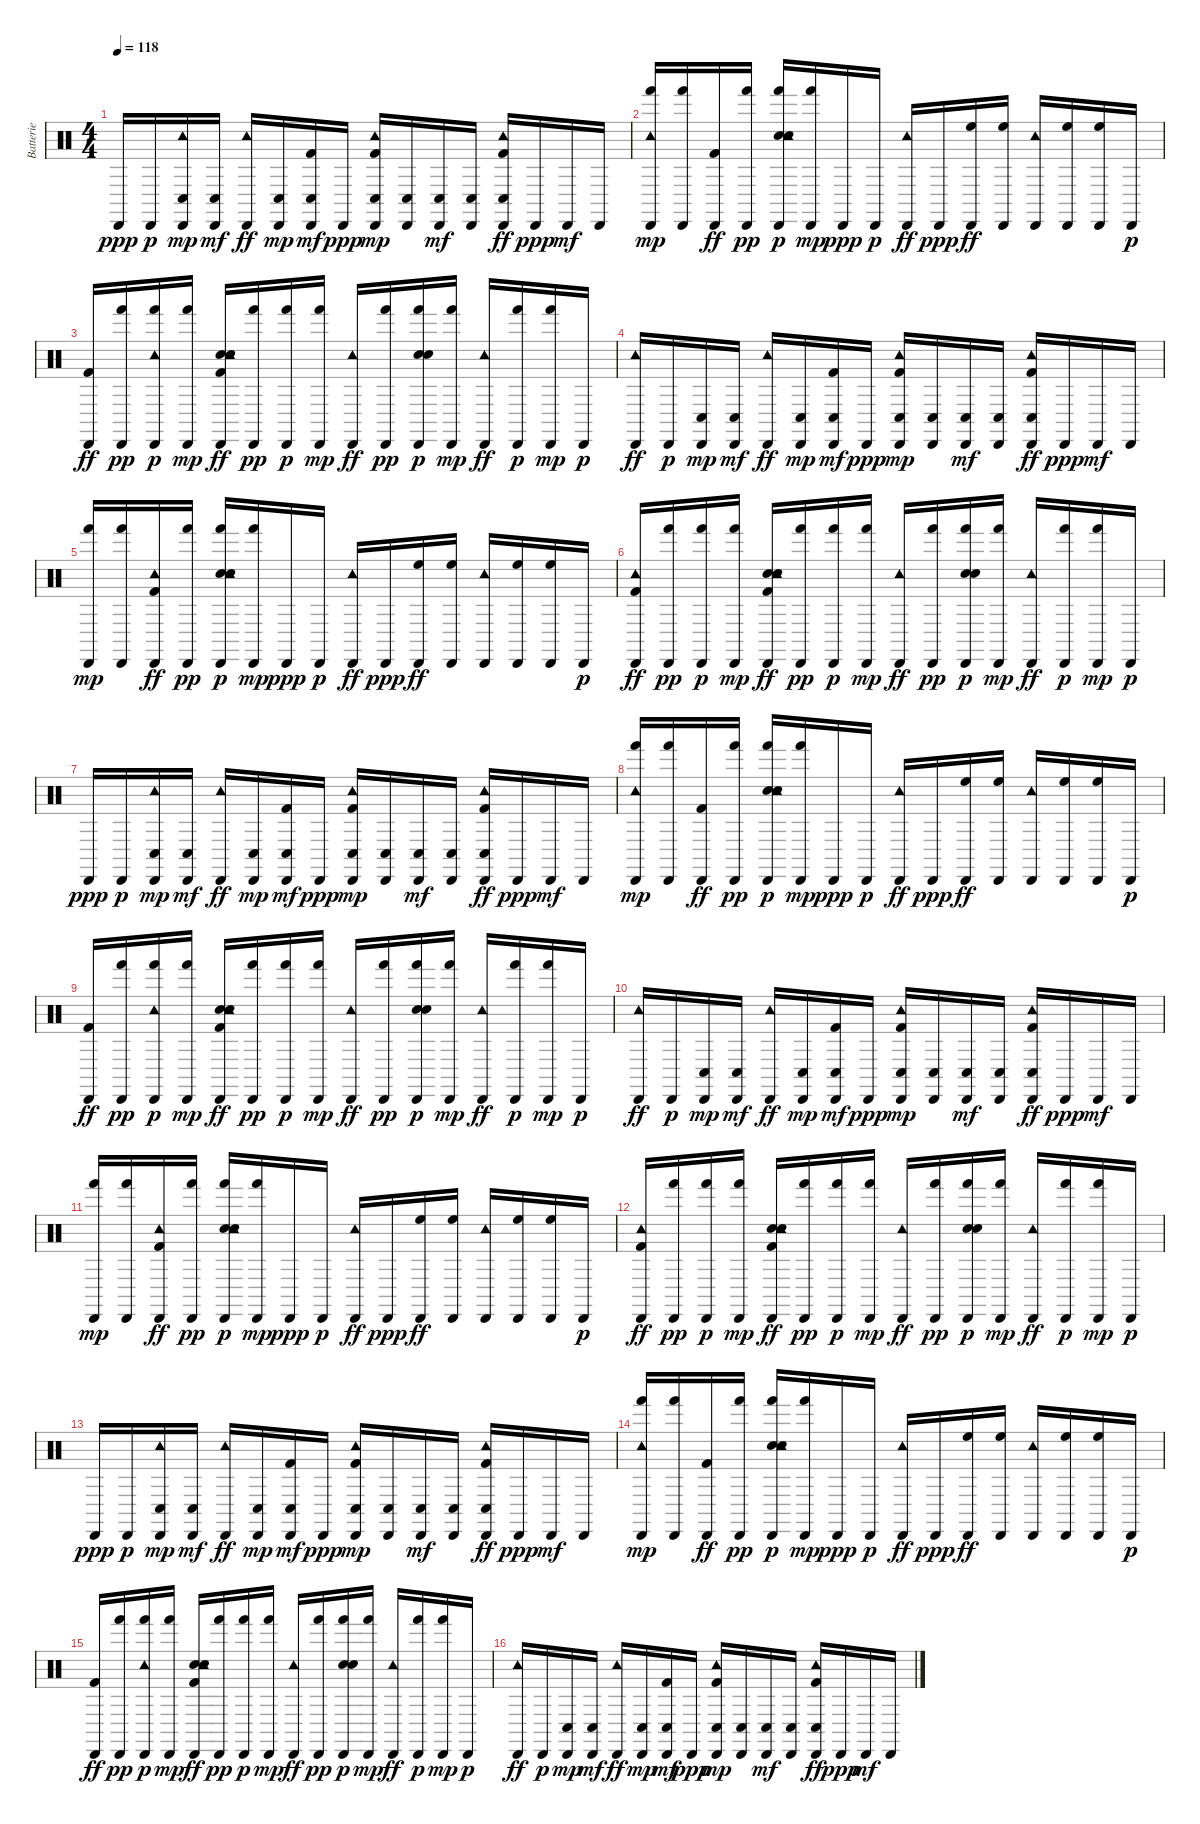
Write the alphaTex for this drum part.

\track ("Batterie" "Batterie") {instrument percussion}
\staff {score}
\articulation defaults
\ts (4 4)
\tempo 118
\clef neutral
\ks c "Cabasa (hit)".16{dy ppp} "Cabasa (hit)".16{dy p}
("Cabasa (hit)" "Tambourine (hit)" "Conga low (hit)").16{dy mp} ("Cabasa (hit)" "Conga low (hit)").16{dy mf} ("Cabasa (hit)" "Tambourine (hit)").16{dy ff} ("Cabasa (hit)" "Conga low (hit)").16{dy mp} ("Cabasa (hit)" "Kick (hit) 2" "Conga low (hit)").16{dy mf} "Cabasa (hit)".16{dy ppp} ("Cabasa (hit)" "Tambourine (hit)" "Kick (hit) 2" "Conga low (hit)").16{dy mp} ("Cabasa (hit)" "Conga low (hit)").16 ("Cabasa (hit)" "Conga low (hit)").16{dy mf} ("Cabasa (hit)" "Conga low (hit)").16 ("Cabasa (hit)" "Tambourine (hit)" "Kick (hit) 2" "Conga low (hit)").16{dy ff} "Cabasa (hit)".16{dy ppp} "Cabasa (hit)".16{dy mf} "Cabasa (hit)".16 |
("Cabasa (hit)" "Tambourine (hit)" "Hand (hit)").16{dy mp} ("Cabasa (hit)" "Hand (hit)").16 ("Cabasa (hit)" "Kick (hit) 2").16{dy ff} ("Cabasa (hit)" "Hand (hit)").16{dy pp} ("Hand Clap (hit)" "Cabasa (hit)" "Tambourine (hit)" "Snare (hit) 2" "Hand (hit)").16{dy p} ("Cabasa (hit)" "Hand (hit)").16{dy mp} "Cabasa (hit)".16{dy ppp} "Cabasa (hit)".16{dy p} ("Cabasa (hit)" "Tambourine (hit)").16{dy ff} "Cabasa (hit)".16{dy ppp} ("Cabasa (hit)" "High Floor Tom (hit)").16{dy ff} ("Cabasa (hit)" "High Floor Tom (hit)").16 ("Cabasa (hit)" "Tambourine (hit)").16 ("Cabasa (hit)" "High Floor Tom (hit)").16 ("Cabasa (hit)" "High Floor Tom (hit)").16 "Cabasa (hit)".16{dy p} |
("Cabasa (hit)" "Kick (hit) 2").16{dy ff} ("Cabasa (hit)" "Hand (hit)").16{dy pp} ("Cabasa (hit)" "Tambourine (hit)" "Hand (hit)").16{dy p} ("Cabasa (hit)" "Hand (hit)").16{dy mp} ("Hand Clap (hit)" "Cabasa (hit)" "Tambourine (hit)" "Kick (hit) 2" "Snare (hit) 2").16{dy ff} ("Cabasa (hit)" "Hand (hit)").16{dy pp} ("Cabasa (hit)" "Hand (hit)").16{dy p} ("Cabasa (hit)" "Hand (hit)").16{dy mp} ("Cabasa (hit)" "Tambourine (hit)").16{dy ff} ("Cabasa (hit)" "Hand (hit)").16{dy pp} ("Hand Clap (hit)" "Cabasa (hit)" "Snare (hit) 2" "Hand (hit)").16{dy p} ("Cabasa (hit)" "Hand (hit)").16{dy mp} ("Cabasa (hit)" "Tambourine (hit)").16{dy ff} ("Cabasa (hit)" "Hand (hit)").16{dy p} ("Cabasa (hit)" "Hand (hit)").16{dy mp} "Cabasa (hit)".16{dy p} |
("Cabasa (hit)" "Tambourine (hit)").16{dy ff} "Cabasa (hit)".16{dy p} ("Cabasa (hit)" "Conga low (hit)").16{dy mp} ("Cabasa (hit)" "Conga low (hit)").16{dy mf} ("Cabasa (hit)" "Tambourine (hit)").16{dy ff} ("Cabasa (hit)" "Conga low (hit)").16{dy mp} ("Cabasa (hit)" "Kick (hit) 2" "Conga low (hit)").16{dy mf} "Cabasa (hit)".16{dy ppp} ("Cabasa (hit)" "Tambourine (hit)" "Kick (hit) 2" "Conga low (hit)").16{dy mp} ("Cabasa (hit)" "Conga low (hit)").16 ("Cabasa (hit)" "Conga low (hit)").16{dy mf} ("Cabasa (hit)" "Conga low (hit)").16 ("Cabasa (hit)" "Tambourine (hit)" "Kick (hit) 2" "Conga low (hit)").16{dy ff} "Cabasa (hit)".16{dy ppp} "Cabasa (hit)".16{dy mf} "Cabasa (hit)".16 |
("Cabasa (hit)" "Hand (hit)").16{dy mp} ("Cabasa (hit)" "Hand (hit)").16 ("Cabasa (hit)" "Tambourine (hit)" "Kick (hit) 2").16{dy ff} ("Cabasa (hit)" "Hand (hit)").16{dy pp} ("Hand Clap (hit)" "Cabasa (hit)" "Tambourine (hit)" "Snare (hit) 2" "Hand (hit)").16{dy p} ("Cabasa (hit)" "Hand (hit)").16{dy mp} "Cabasa (hit)".16{dy ppp} "Cabasa (hit)".16{dy p} ("Cabasa (hit)" "Tambourine (hit)").16{dy ff} "Cabasa (hit)".16{dy ppp} ("Cabasa (hit)" "High Floor Tom (hit)").16{dy ff} ("Cabasa (hit)" "High Floor Tom (hit)").16 ("Cabasa (hit)" "Tambourine (hit)").16 ("Cabasa (hit)" "High Floor Tom (hit)").16 ("Cabasa (hit)" "High Floor Tom (hit)").16 "Cabasa (hit)".16{dy p} |
("Cabasa (hit)" "Tambourine (hit)" "Kick (hit) 2").16{dy ff} ("Cabasa (hit)" "Hand (hit)").16{dy pp} ("Cabasa (hit)" "Hand (hit)").16{dy p} ("Cabasa (hit)" "Hand (hit)").16{dy mp} ("Hand Clap (hit)" "Cabasa (hit)" "Tambourine (hit)" "Kick (hit) 2" "Snare (hit) 2").16{dy ff} ("Cabasa (hit)" "Hand (hit)").16{dy pp} ("Cabasa (hit)" "Hand (hit)").16{dy p} ("Cabasa (hit)" "Hand (hit)").16{dy mp} ("Cabasa (hit)" "Tambourine (hit)").16{dy ff} ("Cabasa (hit)" "Hand (hit)").16{dy pp} ("Hand Clap (hit)" "Cabasa (hit)" "Snare (hit) 2" "Hand (hit)").16{dy p} ("Cabasa (hit)" "Hand (hit)").16{dy mp} ("Cabasa (hit)" "Tambourine (hit)").16{dy ff} ("Cabasa (hit)" "Hand (hit)").16{dy p} ("Cabasa (hit)" "Hand (hit)").16{dy mp} "Cabasa (hit)".16{dy p} |
"Cabasa (hit)".16{dy ppp} "Cabasa (hit)".16{dy p} ("Cabasa (hit)" "Tambourine (hit)" "Conga low (hit)").16{dy mp} ("Cabasa (hit)" "Conga low (hit)").16{dy mf} ("Cabasa (hit)" "Tambourine (hit)").16{dy ff} ("Cabasa (hit)" "Conga low (hit)").16{dy mp} ("Cabasa (hit)" "Kick (hit) 2" "Conga low (hit)").16{dy mf} "Cabasa (hit)".16{dy ppp} ("Cabasa (hit)" "Tambourine (hit)" "Kick (hit) 2" "Conga low (hit)").16{dy mp} ("Cabasa (hit)" "Conga low (hit)").16 ("Cabasa (hit)" "Conga low (hit)").16{dy mf} ("Cabasa (hit)" "Conga low (hit)").16 ("Cabasa (hit)" "Tambourine (hit)" "Kick (hit) 2" "Conga low (hit)").16{dy ff} "Cabasa (hit)".16{dy ppp} "Cabasa (hit)".16{dy mf} "Cabasa (hit)".16 |
("Cabasa (hit)" "Tambourine (hit)" "Hand (hit)").16{dy mp} ("Cabasa (hit)" "Hand (hit)").16 ("Cabasa (hit)" "Kick (hit) 2").16{dy ff} ("Cabasa (hit)" "Hand (hit)").16{dy pp} ("Hand Clap (hit)" "Cabasa (hit)" "Tambourine (hit)" "Snare (hit) 2" "Hand (hit)").16{dy p} ("Cabasa (hit)" "Hand (hit)").16{dy mp} "Cabasa (hit)".16{dy ppp} "Cabasa (hit)".16{dy p} ("Cabasa (hit)" "Tambourine (hit)").16{dy ff} "Cabasa (hit)".16{dy ppp} ("Cabasa (hit)" "High Floor Tom (hit)").16{dy ff} ("Cabasa (hit)" "High Floor Tom (hit)").16 ("Cabasa (hit)" "Tambourine (hit)").16 ("Cabasa (hit)" "High Floor Tom (hit)").16 ("Cabasa (hit)" "High Floor Tom (hit)").16 "Cabasa (hit)".16{dy p} |
("Cabasa (hit)" "Kick (hit) 2").16{dy ff} ("Cabasa (hit)" "Hand (hit)").16{dy pp} ("Cabasa (hit)" "Tambourine (hit)" "Hand (hit)").16{dy p} ("Cabasa (hit)" "Hand (hit)").16{dy mp} ("Hand Clap (hit)" "Cabasa (hit)" "Tambourine (hit)" "Kick (hit) 2" "Snare (hit) 2").16{dy ff} ("Cabasa (hit)" "Hand (hit)").16{dy pp} ("Cabasa (hit)" "Hand (hit)").16{dy p} ("Cabasa (hit)" "Hand (hit)").16{dy mp} ("Cabasa (hit)" "Tambourine (hit)").16{dy ff} ("Cabasa (hit)" "Hand (hit)").16{dy pp} ("Hand Clap (hit)" "Cabasa (hit)" "Snare (hit) 2" "Hand (hit)").16{dy p} ("Cabasa (hit)" "Hand (hit)").16{dy mp} ("Cabasa (hit)" "Tambourine (hit)").16{dy ff} ("Cabasa (hit)" "Hand (hit)").16{dy p} ("Cabasa (hit)" "Hand (hit)").16{dy mp} "Cabasa (hit)".16{dy p} |
("Cabasa (hit)" "Tambourine (hit)").16{dy ff} "Cabasa (hit)".16{dy p} ("Cabasa (hit)" "Conga low (hit)").16{dy mp} ("Cabasa (hit)" "Conga low (hit)").16{dy mf} ("Cabasa (hit)" "Tambourine (hit)").16{dy ff} ("Cabasa (hit)" "Conga low (hit)").16{dy mp} ("Cabasa (hit)" "Kick (hit) 2" "Conga low (hit)").16{dy mf} "Cabasa (hit)".16{dy ppp} ("Cabasa (hit)" "Tambourine (hit)" "Kick (hit) 2" "Conga low (hit)").16{dy mp} ("Cabasa (hit)" "Conga low (hit)").16 ("Cabasa (hit)" "Conga low (hit)").16{dy mf} ("Cabasa (hit)" "Conga low (hit)").16 ("Cabasa (hit)" "Tambourine (hit)" "Kick (hit) 2" "Conga low (hit)").16{dy ff} "Cabasa (hit)".16{dy ppp} "Cabasa (hit)".16{dy mf} "Cabasa (hit)".16 |
("Cabasa (hit)" "Hand (hit)").16{dy mp} ("Cabasa (hit)" "Hand (hit)").16 ("Cabasa (hit)" "Tambourine (hit)" "Kick (hit) 2").16{dy ff} ("Cabasa (hit)" "Hand (hit)").16{dy pp} ("Hand Clap (hit)" "Cabasa (hit)" "Tambourine (hit)" "Snare (hit) 2" "Hand (hit)").16{dy p} ("Cabasa (hit)" "Hand (hit)").16{dy mp} "Cabasa (hit)".16{dy ppp} "Cabasa (hit)".16{dy p} ("Cabasa (hit)" "Tambourine (hit)").16{dy ff} "Cabasa (hit)".16{dy ppp} ("Cabasa (hit)" "High Floor Tom (hit)").16{dy ff} ("Cabasa (hit)" "High Floor Tom (hit)").16 ("Cabasa (hit)" "Tambourine (hit)").16 ("Cabasa (hit)" "High Floor Tom (hit)").16 ("Cabasa (hit)" "High Floor Tom (hit)").16 "Cabasa (hit)".16{dy p} |
("Cabasa (hit)" "Tambourine (hit)" "Kick (hit) 2").16{dy ff} ("Cabasa (hit)" "Hand (hit)").16{dy pp} ("Cabasa (hit)" "Hand (hit)").16{dy p} ("Cabasa (hit)" "Hand (hit)").16{dy mp} ("Hand Clap (hit)" "Cabasa (hit)" "Tambourine (hit)" "Kick (hit) 2" "Snare (hit) 2").16{dy ff} ("Cabasa (hit)" "Hand (hit)").16{dy pp} ("Cabasa (hit)" "Hand (hit)").16{dy p} ("Cabasa (hit)" "Hand (hit)").16{dy mp} ("Cabasa (hit)" "Tambourine (hit)").16{dy ff} ("Cabasa (hit)" "Hand (hit)").16{dy pp} ("Hand Clap (hit)" "Cabasa (hit)" "Snare (hit) 2" "Hand (hit)").16{dy p} ("Cabasa (hit)" "Hand (hit)").16{dy mp} ("Cabasa (hit)" "Tambourine (hit)").16{dy ff} ("Cabasa (hit)" "Hand (hit)").16{dy p} ("Cabasa (hit)" "Hand (hit)").16{dy mp} "Cabasa (hit)".16{dy p} |
"Cabasa (hit)".16{dy ppp} "Cabasa (hit)".16{dy p} ("Cabasa (hit)" "Tambourine (hit)" "Conga low (hit)").16{dy mp} ("Cabasa (hit)" "Conga low (hit)").16{dy mf} ("Cabasa (hit)" "Tambourine (hit)").16{dy ff} ("Cabasa (hit)" "Conga low (hit)").16{dy mp} ("Cabasa (hit)" "Kick (hit) 2" "Conga low (hit)").16{dy mf} "Cabasa (hit)".16{dy ppp} ("Cabasa (hit)" "Tambourine (hit)" "Kick (hit) 2" "Conga low (hit)").16{dy mp} ("Cabasa (hit)" "Conga low (hit)").16 ("Cabasa (hit)" "Conga low (hit)").16{dy mf} ("Cabasa (hit)" "Conga low (hit)").16 ("Cabasa (hit)" "Tambourine (hit)" "Kick (hit) 2" "Conga low (hit)").16{dy ff} "Cabasa (hit)".16{dy ppp} "Cabasa (hit)".16{dy mf} "Cabasa (hit)".16 |
("Cabasa (hit)" "Tambourine (hit)" "Hand (hit)").16{dy mp} ("Cabasa (hit)" "Hand (hit)").16 ("Cabasa (hit)" "Kick (hit) 2").16{dy ff} ("Cabasa (hit)" "Hand (hit)").16{dy pp} ("Hand Clap (hit)" "Cabasa (hit)" "Tambourine (hit)" "Snare (hit) 2" "Hand (hit)").16{dy p} ("Cabasa (hit)" "Hand (hit)").16{dy mp} "Cabasa (hit)".16{dy ppp} "Cabasa (hit)".16{dy p} ("Cabasa (hit)" "Tambourine (hit)").16{dy ff} "Cabasa (hit)".16{dy ppp} ("Cabasa (hit)" "High Floor Tom (hit)").16{dy ff} ("Cabasa (hit)" "High Floor Tom (hit)").16 ("Cabasa (hit)" "Tambourine (hit)").16 ("Cabasa (hit)" "High Floor Tom (hit)").16 ("Cabasa (hit)" "High Floor Tom (hit)").16 "Cabasa (hit)".16{dy p} |
("Cabasa (hit)" "Kick (hit) 2").16{dy ff} ("Cabasa (hit)" "Hand (hit)").16{dy pp} ("Cabasa (hit)" "Tambourine (hit)" "Hand (hit)").16{dy p} ("Cabasa (hit)" "Hand (hit)").16{dy mp} ("Hand Clap (hit)" "Cabasa (hit)" "Tambourine (hit)" "Kick (hit) 2" "Snare (hit) 2").16{dy ff} ("Cabasa (hit)" "Hand (hit)").16{dy pp} ("Cabasa (hit)" "Hand (hit)").16{dy p} ("Cabasa (hit)" "Hand (hit)").16{dy mp} ("Cabasa (hit)" "Tambourine (hit)").16{dy ff} ("Cabasa (hit)" "Hand (hit)").16{dy pp} ("Hand Clap (hit)" "Cabasa (hit)" "Snare (hit) 2" "Hand (hit)").16{dy p} ("Cabasa (hit)" "Hand (hit)").16{dy mp} ("Cabasa (hit)" "Tambourine (hit)").16{dy ff} ("Cabasa (hit)" "Hand (hit)").16{dy p} ("Cabasa (hit)" "Hand (hit)").16{dy mp} "Cabasa (hit)".16{dy p} |
("Cabasa (hit)" "Tambourine (hit)").16{dy ff} "Cabasa (hit)".16{dy p} ("Cabasa (hit)" "Conga low (hit)").16{dy mp} ("Cabasa (hit)" "Conga low (hit)").16{dy mf} ("Cabasa (hit)" "Tambourine (hit)").16{dy ff} ("Cabasa (hit)" "Conga low (hit)").16{dy mp} ("Cabasa (hit)" "Kick (hit) 2" "Conga low (hit)").16{dy mf} "Cabasa (hit)".16{dy ppp} ("Cabasa (hit)" "Tambourine (hit)" "Kick (hit) 2" "Conga low (hit)").16{dy mp} ("Cabasa (hit)" "Conga low (hit)").16 ("Cabasa (hit)" "Conga low (hit)").16{dy mf} ("Cabasa (hit)" "Conga low (hit)").16 ("Cabasa (hit)" "Tambourine (hit)" "Kick (hit) 2" "Conga low (hit)").16{dy ff} "Cabasa (hit)".16{dy ppp} "Cabasa (hit)".16{dy mf} "Cabasa (hit)".16
